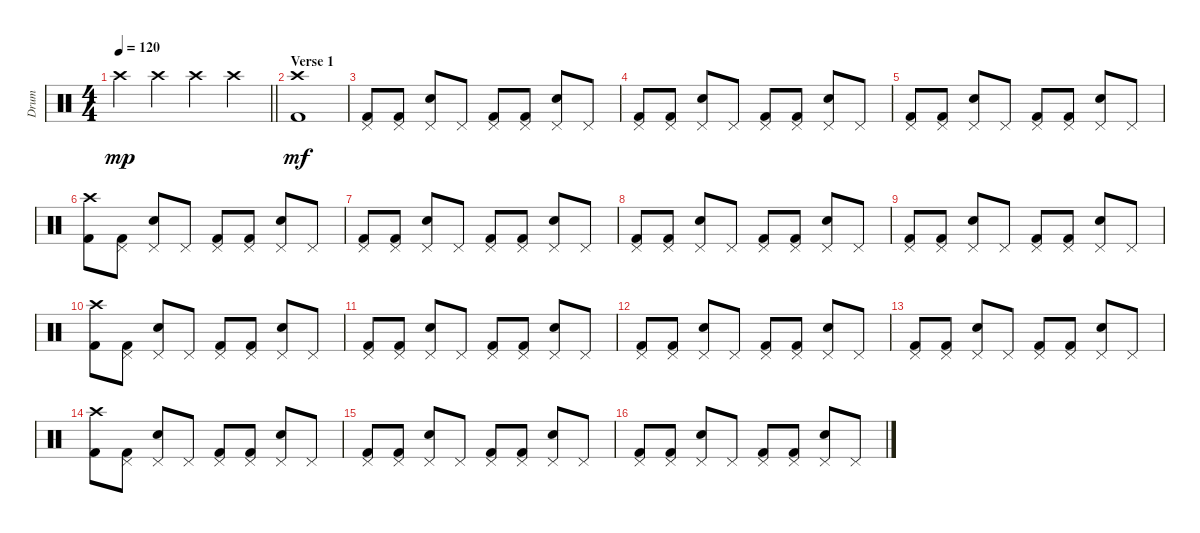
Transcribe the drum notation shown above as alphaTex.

\track ("Drum" "Drum") {instrument percussion}
\staff {score}
\articulation defaults
\ts (4 4)
\tempo 120
\clef neutral
\barLineRight lightlight
\ks c "Crash high (hit)".4{dy mp} "Crash high (hit)".4 "Crash high (hit)".4 "Crash high (hit)".4
|
\section ("" "Verse 1")
("Crash high (hit)" "Kick (hit) 2").1{dy mf} |
("Pedal Hi-Hat (hit)" "Kick (hit) 2").8 ("Pedal Hi-Hat (hit)" "Kick (hit) 2").8 ("Pedal Hi-Hat (hit)" "Snare (hit) 2").8 "Pedal Hi-Hat (hit)".8 ("Pedal Hi-Hat (hit)" "Kick (hit) 2").8 ("Pedal Hi-Hat (hit)" "Kick (hit) 2").8 ("Pedal Hi-Hat (hit)" "Snare (hit) 2").8 "Pedal Hi-Hat (hit)".8 |
("Pedal Hi-Hat (hit)" "Kick (hit) 2").8 ("Pedal Hi-Hat (hit)" "Kick (hit) 2").8 ("Pedal Hi-Hat (hit)" "Snare (hit) 2").8 "Pedal Hi-Hat (hit)".8 ("Pedal Hi-Hat (hit)" "Kick (hit) 2").8 ("Pedal Hi-Hat (hit)" "Kick (hit) 2").8 ("Pedal Hi-Hat (hit)" "Snare (hit) 2").8 "Pedal Hi-Hat (hit)".8 |
("Pedal Hi-Hat (hit)" "Kick (hit) 2").8 ("Pedal Hi-Hat (hit)" "Kick (hit) 2").8 ("Pedal Hi-Hat (hit)" "Snare (hit) 2").8 "Pedal Hi-Hat (hit)".8 ("Pedal Hi-Hat (hit)" "Kick (hit) 2").8 ("Pedal Hi-Hat (hit)" "Kick (hit) 2").8 ("Pedal Hi-Hat (hit)" "Snare (hit) 2").8 "Pedal Hi-Hat (hit)".8 |
("Crash high (hit)" "Kick (hit) 2").8 ("Pedal Hi-Hat (hit)" "Kick (hit) 2").8 ("Pedal Hi-Hat (hit)" "Snare (hit) 2").8 "Pedal Hi-Hat (hit)".8 ("Pedal Hi-Hat (hit)" "Kick (hit) 2").8 ("Pedal Hi-Hat (hit)" "Kick (hit) 2").8 ("Pedal Hi-Hat (hit)" "Snare (hit) 2").8 "Pedal Hi-Hat (hit)".8 |
("Pedal Hi-Hat (hit)" "Kick (hit) 2").8 ("Pedal Hi-Hat (hit)" "Kick (hit) 2").8 ("Pedal Hi-Hat (hit)" "Snare (hit) 2").8 "Pedal Hi-Hat (hit)".8 ("Pedal Hi-Hat (hit)" "Kick (hit) 2").8 ("Pedal Hi-Hat (hit)" "Kick (hit) 2").8 ("Pedal Hi-Hat (hit)" "Snare (hit) 2").8 "Pedal Hi-Hat (hit)".8 |
("Pedal Hi-Hat (hit)" "Kick (hit) 2").8 ("Pedal Hi-Hat (hit)" "Kick (hit) 2").8 ("Pedal Hi-Hat (hit)" "Snare (hit) 2").8 "Pedal Hi-Hat (hit)".8 ("Pedal Hi-Hat (hit)" "Kick (hit) 2").8 ("Pedal Hi-Hat (hit)" "Kick (hit) 2").8 ("Pedal Hi-Hat (hit)" "Snare (hit) 2").8 "Pedal Hi-Hat (hit)".8 |
("Pedal Hi-Hat (hit)" "Kick (hit) 2").8 ("Pedal Hi-Hat (hit)" "Kick (hit) 2").8 ("Pedal Hi-Hat (hit)" "Snare (hit) 2").8 "Pedal Hi-Hat (hit)".8 ("Pedal Hi-Hat (hit)" "Kick (hit) 2").8 ("Pedal Hi-Hat (hit)" "Kick (hit) 2").8 ("Pedal Hi-Hat (hit)" "Snare (hit) 2").8 "Pedal Hi-Hat (hit)".8 |
("Crash high (hit)" "Kick (hit) 2").8 ("Pedal Hi-Hat (hit)" "Kick (hit) 2").8 ("Pedal Hi-Hat (hit)" "Snare (hit) 2").8 "Pedal Hi-Hat (hit)".8 ("Pedal Hi-Hat (hit)" "Kick (hit) 2").8 ("Pedal Hi-Hat (hit)" "Kick (hit) 2").8 ("Pedal Hi-Hat (hit)" "Snare (hit) 2").8 "Pedal Hi-Hat (hit)".8 |
("Pedal Hi-Hat (hit)" "Kick (hit) 2").8 ("Pedal Hi-Hat (hit)" "Kick (hit) 2").8 ("Pedal Hi-Hat (hit)" "Snare (hit) 2").8 "Pedal Hi-Hat (hit)".8 ("Pedal Hi-Hat (hit)" "Kick (hit) 2").8 ("Pedal Hi-Hat (hit)" "Kick (hit) 2").8 ("Pedal Hi-Hat (hit)" "Snare (hit) 2").8 "Pedal Hi-Hat (hit)".8 |
("Pedal Hi-Hat (hit)" "Kick (hit) 2").8 ("Pedal Hi-Hat (hit)" "Kick (hit) 2").8 ("Pedal Hi-Hat (hit)" "Snare (hit) 2").8 "Pedal Hi-Hat (hit)".8 ("Pedal Hi-Hat (hit)" "Kick (hit) 2").8 ("Pedal Hi-Hat (hit)" "Kick (hit) 2").8 ("Pedal Hi-Hat (hit)" "Snare (hit) 2").8 "Pedal Hi-Hat (hit)".8 |
("Pedal Hi-Hat (hit)" "Kick (hit) 2").8 ("Pedal Hi-Hat (hit)" "Kick (hit) 2").8 ("Pedal Hi-Hat (hit)" "Snare (hit) 2").8 "Pedal Hi-Hat (hit)".8 ("Pedal Hi-Hat (hit)" "Kick (hit) 2").8 ("Pedal Hi-Hat (hit)" "Kick (hit) 2").8 ("Pedal Hi-Hat (hit)" "Snare (hit) 2").8 "Pedal Hi-Hat (hit)".8 |
("Crash high (hit)" "Kick (hit) 2").8 ("Pedal Hi-Hat (hit)" "Kick (hit) 2").8 ("Pedal Hi-Hat (hit)" "Snare (hit) 2").8 "Pedal Hi-Hat (hit)".8 ("Pedal Hi-Hat (hit)" "Kick (hit) 2").8 ("Pedal Hi-Hat (hit)" "Kick (hit) 2").8 ("Pedal Hi-Hat (hit)" "Snare (hit) 2").8 "Pedal Hi-Hat (hit)".8 |
("Pedal Hi-Hat (hit)" "Kick (hit) 2").8 ("Pedal Hi-Hat (hit)" "Kick (hit) 2").8 ("Pedal Hi-Hat (hit)" "Snare (hit) 2").8 "Pedal Hi-Hat (hit)".8 ("Pedal Hi-Hat (hit)" "Kick (hit) 2").8 ("Pedal Hi-Hat (hit)" "Kick (hit) 2").8 ("Pedal Hi-Hat (hit)" "Snare (hit) 2").8 "Pedal Hi-Hat (hit)".8 |
("Pedal Hi-Hat (hit)" "Kick (hit) 2").8 ("Pedal Hi-Hat (hit)" "Kick (hit) 2").8 ("Pedal Hi-Hat (hit)" "Snare (hit) 2").8 "Pedal Hi-Hat (hit)".8 ("Pedal Hi-Hat (hit)" "Kick (hit) 2").8 ("Pedal Hi-Hat (hit)" "Kick (hit) 2").8 ("Pedal Hi-Hat (hit)" "Snare (hit) 2").8 "Pedal Hi-Hat (hit)".8
